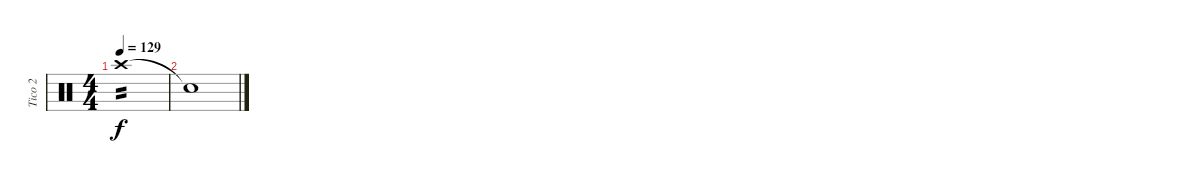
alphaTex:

\track ("Tico 2" "Tico 2") {instrument percussion}
\staff {score}
\articulation defaults
\ts (4 4)
\tempo 129
\clef neutral
\ks c "Crash high (hit)".1{tp 2 dy f volume 16}
|
"Snare (hit)"{t}.1
